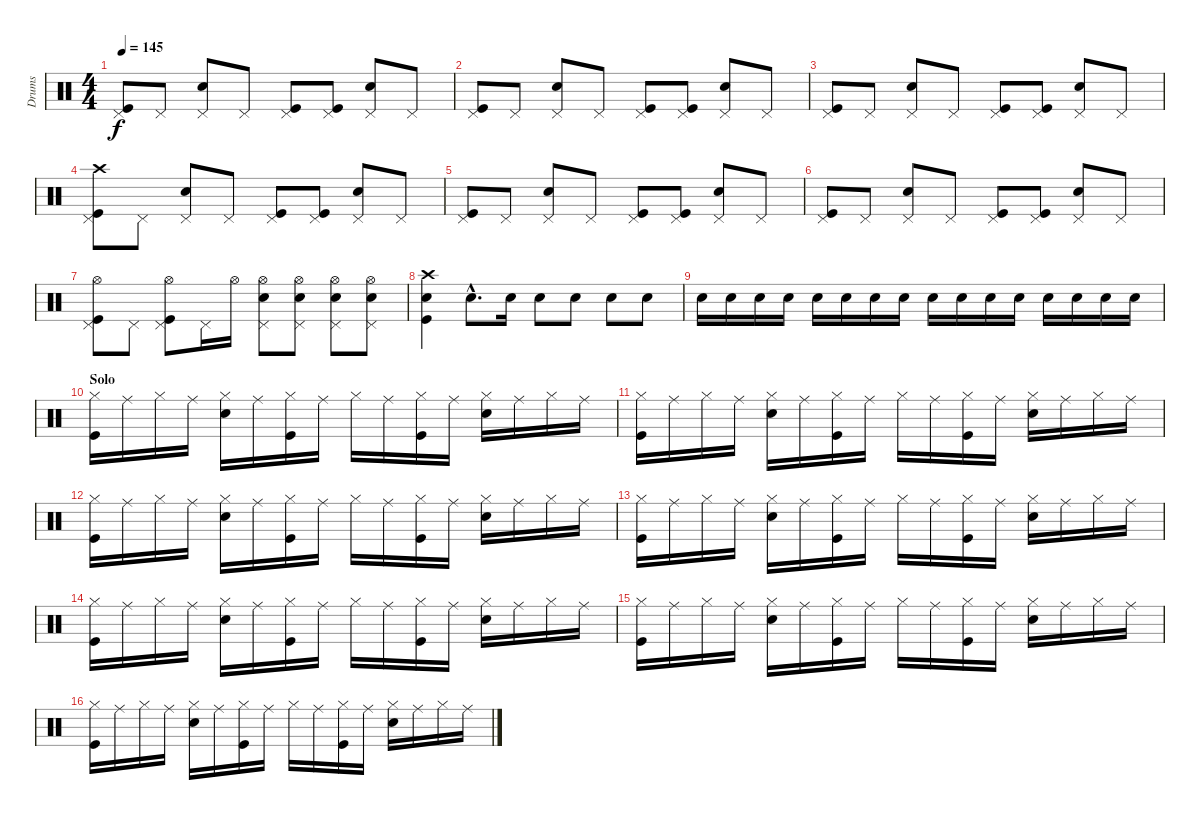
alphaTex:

\track ("Drums" "Drums") {instrument percussion}
\staff {score}
\articulation defaults
\ts (4 4)
\tempo 145
\clef neutral
\ks c
("Pedal Hi-Hat (hit)" "Kick (hit)").8{dy f} "Pedal Hi-Hat (hit)".8 ("Pedal Hi-Hat (hit)" "Snare (hit) 2").8 "Pedal Hi-Hat (hit)".8 ("Pedal Hi-Hat (hit)" "Kick (hit)").8 ("Pedal Hi-Hat (hit)" "Kick (hit)").8 ("Pedal Hi-Hat (hit)" "Snare (hit) 2").8 "Pedal Hi-Hat (hit)".8 |
("Pedal Hi-Hat (hit)" "Kick (hit)").8 "Pedal Hi-Hat (hit)".8 ("Pedal Hi-Hat (hit)" "Snare (hit) 2").8 "Pedal Hi-Hat (hit)".8 ("Pedal Hi-Hat (hit)" "Kick (hit)").8 ("Pedal Hi-Hat (hit)" "Kick (hit)").8 ("Pedal Hi-Hat (hit)" "Snare (hit) 2").8 "Pedal Hi-Hat (hit)".8 |
("Pedal Hi-Hat (hit)" "Kick (hit)").8 "Pedal Hi-Hat (hit)".8 ("Pedal Hi-Hat (hit)" "Snare (hit) 2").8 "Pedal Hi-Hat (hit)".8 ("Pedal Hi-Hat (hit)" "Kick (hit)").8 ("Pedal Hi-Hat (hit)" "Kick (hit)").8 ("Pedal Hi-Hat (hit)" "Snare (hit) 2").8 "Pedal Hi-Hat (hit)".8 |
("Crash high (hit)" "Pedal Hi-Hat (hit)" "Kick (hit)").8 "Pedal Hi-Hat (hit)".8 ("Pedal Hi-Hat (hit)" "Snare (hit) 2").8 "Pedal Hi-Hat (hit)".8 ("Pedal Hi-Hat (hit)" "Kick (hit)").8 ("Pedal Hi-Hat (hit)" "Kick (hit)").8 ("Pedal Hi-Hat (hit)" "Snare (hit) 2").8 "Pedal Hi-Hat (hit)".8 |
("Pedal Hi-Hat (hit)" "Kick (hit)").8 "Pedal Hi-Hat (hit)".8 ("Pedal Hi-Hat (hit)" "Snare (hit) 2").8 "Pedal Hi-Hat (hit)".8 ("Pedal Hi-Hat (hit)" "Kick (hit)").8 ("Pedal Hi-Hat (hit)" "Kick (hit)").8 ("Pedal Hi-Hat (hit)" "Snare (hit) 2").8 "Pedal Hi-Hat (hit)".8 |
("Pedal Hi-Hat (hit)" "Kick (hit)").8 "Pedal Hi-Hat (hit)".8 ("Pedal Hi-Hat (hit)" "Snare (hit) 2").8 "Pedal Hi-Hat (hit)".8 ("Pedal Hi-Hat (hit)" "Kick (hit)").8 ("Pedal Hi-Hat (hit)" "Kick (hit)").8 ("Pedal Hi-Hat (hit)" "Snare (hit) 2").8 "Pedal Hi-Hat (hit)".8 |
("Pedal Hi-Hat (hit)" "Hi-Hat (open)" "Kick (hit)").8 "Pedal Hi-Hat (hit)".8 ("Pedal Hi-Hat (hit)" "Hi-Hat (open)" "Kick (hit)").8 "Pedal Hi-Hat (hit)".16 "Hi-Hat (open)".16 ("Pedal Hi-Hat (hit)" "Snare (hit) 2" "Hi-Hat (open)").8 ("Pedal Hi-Hat (hit)" "Snare (hit) 2" "Hi-Hat (open)").8 ("Pedal Hi-Hat (hit)" "Snare (hit) 2" "Hi-Hat (open)").8 ("Pedal Hi-Hat (hit)" "Snare (hit) 2" "Hi-Hat (open)").8 |
("Crash high (hit)" "Snare (hit) 2" "Kick (hit)").4 "Snare (hit) 2"{hac}.8{d} "Snare (hit) 2".16 "Snare (hit) 2".8 "Snare (hit) 2".8 "Snare (hit) 2".8 "Snare (hit) 2".8 |
"Snare (hit) 2".16 "Snare (hit) 2".16 "Snare (hit) 2".16 "Snare (hit) 2".16 "Snare (hit) 2".16 "Snare (hit) 2".16 "Snare (hit) 2".16 "Snare (hit) 2".16 "Snare (hit) 2".16 "Snare (hit) 2".16 "Snare (hit) 2".16 "Snare (hit) 2".16 "Snare (hit) 2".16 "Snare (hit) 2".16 "Snare (hit) 2".16 "Snare (hit) 2".16 |
\section ("" "Solo")
("Hi-Hat (closed)" "Kick (hit)").16 "Ride (middle)".16 "Hi-Hat (closed)".16 "Ride (middle)".16 ("Hi-Hat (closed)" "Snare (hit) 2").16 "Ride (middle)".16 ("Hi-Hat (closed)" "Kick (hit)").16 "Ride (middle)".16 "Hi-Hat (closed)".16 "Ride (middle)".16 ("Hi-Hat (closed)" "Kick (hit)").16 "Ride (middle)".16 ("Hi-Hat (closed)" "Snare (hit) 2").16 "Ride (middle)".16 "Hi-Hat (closed)".16 "Ride (middle)".16 |
("Hi-Hat (closed)" "Kick (hit)").16 "Ride (middle)".16 "Hi-Hat (closed)".16 "Ride (middle)".16 ("Hi-Hat (closed)" "Snare (hit) 2").16 "Ride (middle)".16 ("Hi-Hat (closed)" "Kick (hit)").16 "Ride (middle)".16 "Hi-Hat (closed)".16 "Ride (middle)".16 ("Hi-Hat (closed)" "Kick (hit)").16 "Ride (middle)".16 ("Hi-Hat (closed)" "Snare (hit) 2").16 "Ride (middle)".16 "Hi-Hat (closed)".16 "Ride (middle)".16 |
("Hi-Hat (closed)" "Kick (hit)").16 "Ride (middle)".16 "Hi-Hat (closed)".16 "Ride (middle)".16 ("Hi-Hat (closed)" "Snare (hit) 2").16 "Ride (middle)".16 ("Hi-Hat (closed)" "Kick (hit)").16 "Ride (middle)".16 "Hi-Hat (closed)".16 "Ride (middle)".16 ("Hi-Hat (closed)" "Kick (hit)").16 "Ride (middle)".16 ("Hi-Hat (closed)" "Snare (hit) 2").16 "Ride (middle)".16 "Hi-Hat (closed)".16 "Ride (middle)".16 |
("Hi-Hat (closed)" "Kick (hit)").16 "Ride (middle)".16 "Hi-Hat (closed)".16 "Ride (middle)".16 ("Hi-Hat (closed)" "Snare (hit) 2").16 "Ride (middle)".16 ("Hi-Hat (closed)" "Kick (hit)").16 "Ride (middle)".16 "Hi-Hat (closed)".16 "Ride (middle)".16 ("Hi-Hat (closed)" "Kick (hit)").16 "Ride (middle)".16 ("Hi-Hat (closed)" "Snare (hit) 2").16 "Ride (middle)".16 "Hi-Hat (closed)".16 "Ride (middle)".16 |
("Hi-Hat (closed)" "Kick (hit)").16 "Ride (middle)".16 "Hi-Hat (closed)".16 "Ride (middle)".16 ("Hi-Hat (closed)" "Snare (hit) 2").16 "Ride (middle)".16 ("Hi-Hat (closed)" "Kick (hit)").16 "Ride (middle)".16 "Hi-Hat (closed)".16 "Ride (middle)".16 ("Hi-Hat (closed)" "Kick (hit)").16 "Ride (middle)".16 ("Hi-Hat (closed)" "Snare (hit) 2").16 "Ride (middle)".16 "Hi-Hat (closed)".16 "Ride (middle)".16 |
("Hi-Hat (closed)" "Kick (hit)").16 "Ride (middle)".16 "Hi-Hat (closed)".16 "Ride (middle)".16 ("Hi-Hat (closed)" "Snare (hit) 2").16 "Ride (middle)".16 ("Hi-Hat (closed)" "Kick (hit)").16 "Ride (middle)".16 "Hi-Hat (closed)".16 "Ride (middle)".16 ("Hi-Hat (closed)" "Kick (hit)").16 "Ride (middle)".16 ("Hi-Hat (closed)" "Snare (hit) 2").16 "Ride (middle)".16 "Hi-Hat (closed)".16 "Ride (middle)".16 |
("Hi-Hat (closed)" "Kick (hit)").16 "Ride (middle)".16 "Hi-Hat (closed)".16 "Ride (middle)".16 ("Hi-Hat (closed)" "Snare (hit) 2").16 "Ride (middle)".16 ("Hi-Hat (closed)" "Kick (hit)").16 "Ride (middle)".16 "Hi-Hat (closed)".16 "Ride (middle)".16 ("Hi-Hat (closed)" "Kick (hit)").16 "Ride (middle)".16 ("Hi-Hat (closed)" "Snare (hit) 2").16 "Ride (middle)".16 "Hi-Hat (closed)".16 "Ride (middle)".16
